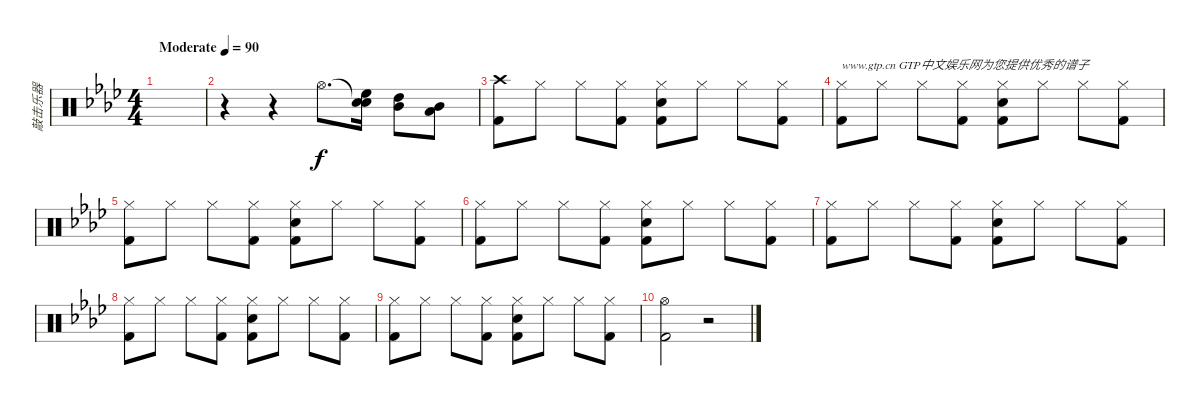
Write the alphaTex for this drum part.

\track ("敲击乐器" "敲击乐器") {instrument percussion}
\staff {score}
\articulation defaults
\ts (4 4)
\tempo (90 "Moderate")
\clef neutral
\ks ab
|
r.4 r.4 "Hi-Hat (open)".8{d} ("Snare (hit)"{t} "High Floor Tom (hit)" "Electric Snare (hit)").16 ("Mid Tom (hit)" "High Tom (hit)").8 ("Low Tom (hit)" "Mid Tom (hit)").8 |
("Crash high (hit)" "Kick (hit) 2").8 "Hi-Hat (closed)".8 "Hi-Hat (closed)".8 ("Hi-Hat (closed)" "Kick (hit) 2").8 ("Hi-Hat (closed)" "Snare (hit) 2" "Kick (hit) 2").8 "Hi-Hat (closed)".8 "Hi-Hat (closed)".8 ("Hi-Hat (closed)" "Kick (hit) 2").8 |
("Hi-Hat (closed)" "Kick (hit) 2").8{txt "www.gtp.cn GTP中文娱乐网为您提供优秀的谱子"} "Hi-Hat (closed)".8 "Hi-Hat (closed)".8 ("Hi-Hat (closed)" "Kick (hit) 2").8 ("Hi-Hat (closed)" "Snare (hit) 2" "Kick (hit) 2").8 "Hi-Hat (closed)".8 "Hi-Hat (closed)".8 ("Hi-Hat (closed)" "Kick (hit) 2").8 |
("Hi-Hat (closed)" "Kick (hit) 2").8 "Hi-Hat (closed)".8 "Hi-Hat (closed)".8 ("Hi-Hat (closed)" "Kick (hit) 2").8 ("Hi-Hat (closed)" "Snare (hit) 2" "Kick (hit) 2").8 "Hi-Hat (closed)".8 "Hi-Hat (closed)".8 ("Hi-Hat (closed)" "Kick (hit) 2").8 |
("Hi-Hat (closed)" "Kick (hit) 2").8 "Hi-Hat (closed)".8 "Hi-Hat (closed)".8 ("Hi-Hat (closed)" "Kick (hit) 2").8 ("Hi-Hat (closed)" "Snare (hit) 2" "Kick (hit) 2").8 "Hi-Hat (closed)".8 "Hi-Hat (closed)".8 ("Hi-Hat (closed)" "Kick (hit) 2").8 |
("Hi-Hat (closed)" "Kick (hit) 2").8 "Hi-Hat (closed)".8 "Hi-Hat (closed)".8 ("Hi-Hat (closed)" "Kick (hit) 2").8 ("Hi-Hat (closed)" "Snare (hit) 2" "Kick (hit) 2").8 "Hi-Hat (closed)".8 "Hi-Hat (closed)".8 ("Hi-Hat (closed)" "Kick (hit) 2").8 |
("Hi-Hat (closed)" "Kick (hit) 2").8 "Hi-Hat (closed)".8 "Hi-Hat (closed)".8 ("Hi-Hat (closed)" "Kick (hit) 2").8 ("Hi-Hat (closed)" "Snare (hit) 2" "Kick (hit) 2").8 "Hi-Hat (closed)".8 "Hi-Hat (closed)".8 ("Hi-Hat (closed)" "Kick (hit) 2").8 |
("Hi-Hat (closed)" "Kick (hit) 2").8 "Hi-Hat (closed)".8 "Hi-Hat (closed)".8 ("Hi-Hat (closed)" "Kick (hit) 2").8 ("Hi-Hat (closed)" "Snare (hit) 2" "Kick (hit) 2").8 "Hi-Hat (closed)".8 "Hi-Hat (closed)".8 ("Hi-Hat (closed)" "Kick (hit) 2").8 |
("Hi-Hat (open)" "Kick (hit) 2").2 r.2
